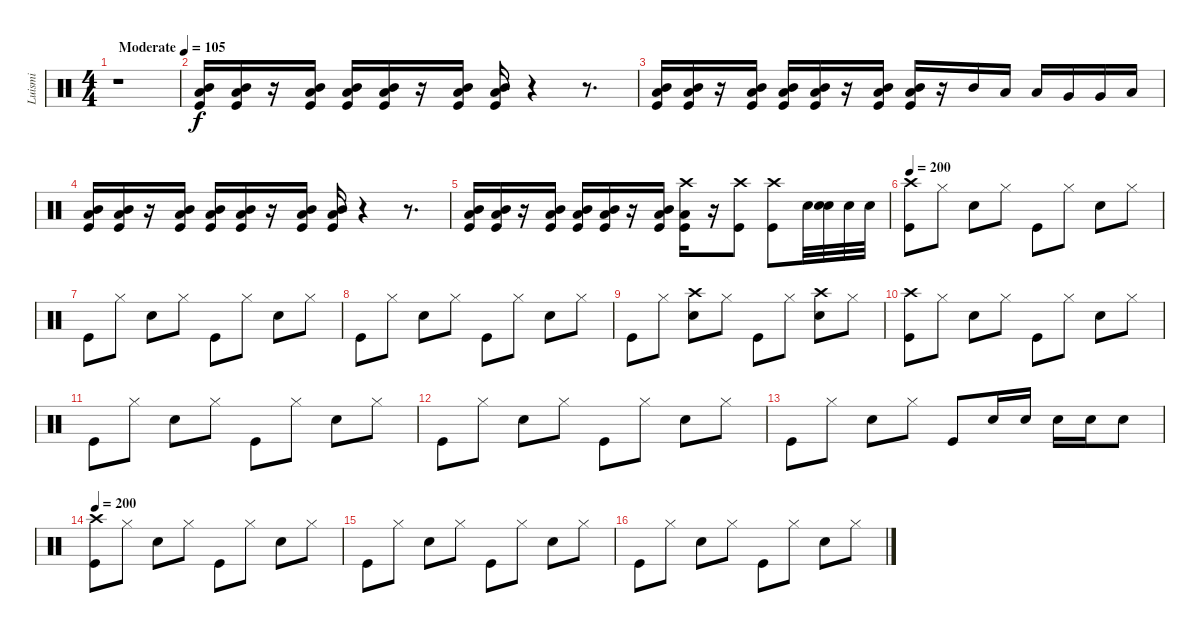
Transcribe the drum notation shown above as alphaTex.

\track ("Luismi" "Luismi") {instrument percussion}
\staff {score}
\articulation defaults
\ts (4 4)
\tempo (105 "Moderate")
\clef neutral
\ks c
r.1{dy f} |
("Mid Tom (hit)" "Low Tom (hit)" "Kick (hit)").16 ("Mid Tom (hit)" "Low Tom (hit)" "Kick (hit)").16 r.16 ("Mid Tom (hit)" "Low Tom (hit)" "Kick (hit)").16 ("Mid Tom (hit)" "Low Tom (hit)" "Kick (hit)").16 ("Mid Tom (hit)" "Low Tom (hit)" "Kick (hit)").16 r.16 ("Mid Tom (hit)" "Low Tom (hit)" "Kick (hit)").16 ("Mid Tom (hit)" "Low Tom (hit)" "Kick (hit)").16 r.4 r.8{d} |
("Mid Tom (hit)" "Low Tom (hit)" "Kick (hit)").16 ("Mid Tom (hit)" "Low Tom (hit)" "Kick (hit)").16 r.16 ("Mid Tom (hit)" "Low Tom (hit)" "Kick (hit)").16 ("Mid Tom (hit)" "Low Tom (hit)" "Kick (hit)").16 ("Mid Tom (hit)" "Low Tom (hit)" "Kick (hit)").16 r.16 ("Mid Tom (hit)" "Low Tom (hit)" "Kick (hit)").16 ("Mid Tom (hit)" "Low Tom (hit)" "Kick (hit)").16 r.16 "Mid Tom (hit)".16 "Low Tom (hit)".16 "Low Tom (hit)".16 "Very Low Tom (hit)".16 "Very Low Tom (hit)".16 "Low Floor Tom (hit)".16 |
("Mid Tom (hit)" "Low Tom (hit)" "Kick (hit)").16 ("Mid Tom (hit)" "Low Tom (hit)" "Kick (hit)").16 r.16 ("Mid Tom (hit)" "Low Tom (hit)" "Kick (hit)").16 ("Mid Tom (hit)" "Low Tom (hit)" "Kick (hit)").16 ("Mid Tom (hit)" "Low Tom (hit)" "Kick (hit)").16 r.16 ("Mid Tom (hit)" "Low Tom (hit)" "Kick (hit)").16 ("Mid Tom (hit)" "Low Tom (hit)" "Kick (hit)").16 r.4 r.8{d} |
("Mid Tom (hit)" "Low Tom (hit)" "Kick (hit)").16 ("Mid Tom (hit)" "Low Tom (hit)" "Kick (hit)").16 r.16 ("Mid Tom (hit)" "Low Tom (hit)" "Kick (hit)").16 ("Mid Tom (hit)" "Low Tom (hit)" "Kick (hit)").16 ("Mid Tom (hit)" "Low Tom (hit)" "Kick (hit)").16 r.16 ("Mid Tom (hit)" "Low Tom (hit)" "Kick (hit)").16 ("Low Tom (hit)" "Kick (hit)" "Crash high (hit)").16 r.16 ("Crash high (hit)" "Kick (hit)").8 ("Crash high (hit)" "Kick (hit)").8 "Snare (hit) 2".32 ("Snare (hit) 2" "Snare (hit) 2").32 "Snare (hit) 2".32 "Snare (hit) 2".32 |
\tempo 200
("Crash high (hit)" "Kick (hit)").8 "Hi-Hat (closed)".8 "Snare (hit) 2".8 "Hi-Hat (closed)".8 "Kick (hit)".8 "Hi-Hat (closed)".8 "Snare (hit) 2".8 "Hi-Hat (closed)".8 |
"Kick (hit)".8 "Hi-Hat (closed)".8 "Snare (hit) 2".8 "Hi-Hat (closed)".8 "Kick (hit)".8 "Hi-Hat (closed)".8 "Snare (hit) 2".8 "Hi-Hat (closed)".8 |
"Kick (hit)".8 "Hi-Hat (closed)".8 "Snare (hit) 2".8 "Hi-Hat (closed)".8 "Kick (hit)".8 "Hi-Hat (closed)".8 "Snare (hit) 2".8 "Hi-Hat (closed)".8 |
"Kick (hit)".8 "Hi-Hat (closed)".8 ("Snare (hit) 2" "Crash high (hit)").8 "Hi-Hat (closed)".8 "Kick (hit)".8 "Hi-Hat (closed)".8 ("Snare (hit) 2" "Crash high (hit)").8 "Hi-Hat (closed)".8 |
("Crash high (hit)" "Kick (hit)").8 "Hi-Hat (closed)".8 "Snare (hit) 2".8 "Hi-Hat (closed)".8 "Kick (hit)".8 "Hi-Hat (closed)".8 "Snare (hit) 2".8 "Hi-Hat (closed)".8 |
"Kick (hit)".8 "Hi-Hat (closed)".8 "Snare (hit) 2".8 "Hi-Hat (closed)".8 "Kick (hit)".8 "Hi-Hat (closed)".8 "Snare (hit) 2".8 "Hi-Hat (closed)".8 |
"Kick (hit)".8 "Hi-Hat (closed)".8 "Snare (hit) 2".8 "Hi-Hat (closed)".8 "Kick (hit)".8 "Hi-Hat (closed)".8 "Snare (hit) 2".8 "Hi-Hat (closed)".8 |
"Kick (hit)".8 "Hi-Hat (closed)".8 "Snare (hit) 2".8 "Hi-Hat (closed)".8 "Kick (hit)".8 "Snare (hit) 2".16 "Snare (hit) 2".16 "Snare (hit) 2".16 "Snare (hit) 2".16 "Snare (hit) 2".8 |
\tempo 200
("Crash high (hit)" "Kick (hit)").8 "Hi-Hat (closed)".8 "Snare (hit) 2".8 "Hi-Hat (closed)".8 "Kick (hit)".8 "Hi-Hat (closed)".8 "Snare (hit) 2".8 "Hi-Hat (closed)".8 |
"Kick (hit)".8 "Hi-Hat (closed)".8 "Snare (hit) 2".8 "Hi-Hat (closed)".8 "Kick (hit)".8 "Hi-Hat (closed)".8 "Snare (hit) 2".8 "Hi-Hat (closed)".8 |
"Kick (hit)".8 "Hi-Hat (closed)".8 "Snare (hit) 2".8 "Hi-Hat (closed)".8 "Kick (hit)".8 "Hi-Hat (closed)".8 "Snare (hit) 2".8 "Hi-Hat (closed)".8
